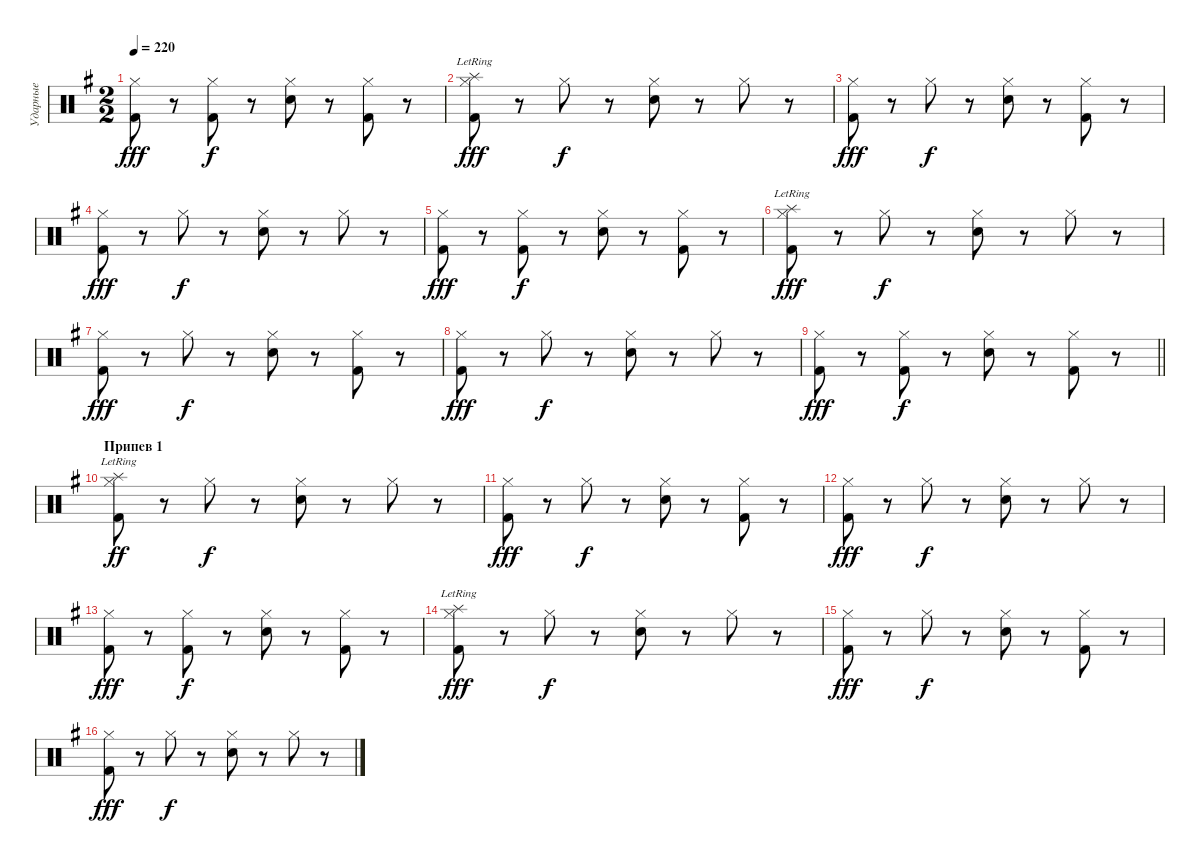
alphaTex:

\track ("Ударные" "Ударные") {instrument percussion}
\staff {score}
\articulation defaults
\ts (2 2)
\tempo 220
\clef neutral
\ks eminor
("Hi-Hat (closed)" "Kick (hit) 2").8{dy fff} r.8 ("Hi-Hat (closed)" "Kick (hit) 2").8{dy f} r.8 ("Hi-Hat (closed)" "Snare (hit) 2").8 r.8 ("Hi-Hat (closed)" "Kick (hit) 2").8 r.8 |
("Hi-Hat (closed)" "Splash (hit)"{lr} "Kick (hit) 2").8{dy fff} r.8 "Hi-Hat (closed)".8{dy f} r.8 ("Hi-Hat (closed)" "Snare (hit) 2").8 r.8 "Hi-Hat (closed)".8 r.8 |
("Hi-Hat (closed)" "Kick (hit) 2").8{dy fff} r.8 "Hi-Hat (closed)".8{dy f} r.8 ("Hi-Hat (closed)" "Snare (hit) 2").8 r.8 ("Hi-Hat (closed)" "Kick (hit) 2").8 r.8 |
("Hi-Hat (closed)" "Kick (hit) 2").8{dy fff} r.8 "Hi-Hat (closed)".8{dy f} r.8 ("Hi-Hat (closed)" "Snare (hit) 2").8 r.8 "Hi-Hat (closed)".8 r.8 |
("Hi-Hat (closed)" "Kick (hit) 2").8{dy fff} r.8 ("Hi-Hat (closed)" "Kick (hit) 2").8{dy f} r.8 ("Hi-Hat (closed)" "Snare (hit) 2").8 r.8 ("Hi-Hat (closed)" "Kick (hit) 2").8 r.8 |
("Hi-Hat (closed)" "Splash (hit)"{lr} "Kick (hit) 2").8{dy fff} r.8 "Hi-Hat (closed)".8{dy f} r.8 ("Hi-Hat (closed)" "Snare (hit) 2").8 r.8 "Hi-Hat (closed)".8 r.8 |
("Hi-Hat (closed)" "Kick (hit) 2").8{dy fff} r.8 "Hi-Hat (closed)".8{dy f} r.8 ("Hi-Hat (closed)" "Snare (hit) 2").8 r.8 ("Hi-Hat (closed)" "Kick (hit) 2").8 r.8 |
("Hi-Hat (closed)" "Kick (hit) 2").8{dy fff} r.8 "Hi-Hat (closed)".8{dy f} r.8 ("Hi-Hat (closed)" "Snare (hit) 2").8 r.8 "Hi-Hat (closed)".8 r.8 |
\barLineRight lightlight
("Hi-Hat (closed)" "Kick (hit) 2").8{dy fff} r.8 ("Hi-Hat (closed)" "Kick (hit) 2").8{dy f} r.8 ("Hi-Hat (closed)" "Snare (hit) 2").8 r.8 ("Hi-Hat (closed)" "Kick (hit) 2").8 r.8 |
\section ("" "Припев 1")
("Hi-Hat (closed)" "Splash (hit)"{lr} "Kick (hit) 2").8{dy ff} r.8 "Hi-Hat (closed)".8{dy f} r.8 ("Hi-Hat (closed)" "Snare (hit) 2").8 r.8 "Hi-Hat (closed)".8 r.8 |
("Hi-Hat (closed)" "Kick (hit) 2").8{dy fff} r.8 "Hi-Hat (closed)".8{dy f} r.8 ("Hi-Hat (closed)" "Snare (hit) 2").8 r.8 ("Hi-Hat (closed)" "Kick (hit) 2").8 r.8 |
("Hi-Hat (closed)" "Kick (hit) 2").8{dy fff} r.8 "Hi-Hat (closed)".8{dy f} r.8 ("Hi-Hat (closed)" "Snare (hit) 2").8 r.8 "Hi-Hat (closed)".8 r.8 |
("Hi-Hat (closed)" "Kick (hit) 2").8{dy fff} r.8 ("Hi-Hat (closed)" "Kick (hit) 2").8{dy f} r.8 ("Hi-Hat (closed)" "Snare (hit) 2").8 r.8 ("Hi-Hat (closed)" "Kick (hit) 2").8 r.8 |
("Hi-Hat (closed)" "Splash (hit)"{lr} "Kick (hit) 2").8{dy fff} r.8 "Hi-Hat (closed)".8{dy f} r.8 ("Hi-Hat (closed)" "Snare (hit) 2").8 r.8 "Hi-Hat (closed)".8 r.8 |
("Hi-Hat (closed)" "Kick (hit) 2").8{dy fff} r.8 "Hi-Hat (closed)".8{dy f} r.8 ("Hi-Hat (closed)" "Snare (hit) 2").8 r.8 ("Hi-Hat (closed)" "Kick (hit) 2").8 r.8 |
("Hi-Hat (closed)" "Kick (hit) 2").8{dy fff} r.8 "Hi-Hat (closed)".8{dy f} r.8 ("Hi-Hat (closed)" "Snare (hit) 2").8 r.8 "Hi-Hat (closed)".8 r.8
